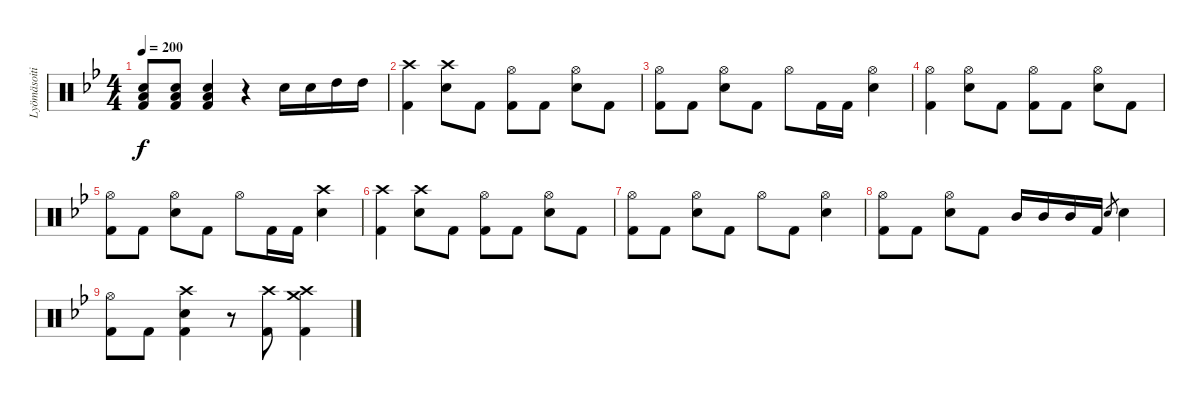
\track ("Lyömäsoitin" "Lyömäsoiti") {instrument percussion}
\staff {score}
\articulation defaults
\ts (4 4)
\tempo 200
\clef neutral
\ks bb
("Snare (hit) 2" "Low Tom (hit)" "Kick (hit) 2").8{dy f} ("Snare (hit) 2" "Low Tom (hit)" "Kick (hit) 2").8 ("Snare (hit) 2" "Low Tom (hit)" "Kick (hit) 2").4 r.4 "Snare (hit) 2".16 "Snare (hit) 2".16 "High Tom (hit)".16 "High Tom (hit)".16 |
("Crash high (hit)" "Kick (hit) 2").4 ("Crash high (hit)" "Snare (hit) 2").8 "Kick (hit) 2".8 ("Hi-Hat (open)" "Kick (hit) 2").8 "Kick (hit) 2".8 ("Hi-Hat (open)" "Snare (hit) 2").8 "Kick (hit) 2".8 |
("Hi-Hat (open)" "Kick (hit) 2").8 "Kick (hit) 2".8 ("Hi-Hat (open)" "Snare (hit) 2").8 "Kick (hit) 2".8 "Hi-Hat (open)".8 "Kick (hit) 2".16 "Kick (hit) 2".16 ("Hi-Hat (open)" "Snare (hit) 2").4 |
("Hi-Hat (open)" "Kick (hit) 2").4 ("Hi-Hat (open)" "Snare (hit) 2").8 "Kick (hit) 2".8 ("Hi-Hat (open)" "Kick (hit) 2").8 "Kick (hit) 2".8 ("Hi-Hat (open)" "Snare (hit) 2").8 "Kick (hit) 2".8 |
("Hi-Hat (open)" "Kick (hit) 2").8 "Kick (hit) 2".8 ("Hi-Hat (open)" "Snare (hit) 2").8 "Kick (hit) 2".8 "Hi-Hat (open)".8 "Kick (hit) 2".16 "Kick (hit) 2".16 ("Crash high (hit)" "Snare (hit) 2").4 |
("Crash high (hit)" "Kick (hit) 2").4 ("Crash high (hit)" "Snare (hit) 2").8 "Kick (hit) 2".8 ("Hi-Hat (open)" "Kick (hit) 2").8 "Kick (hit) 2".8 ("Hi-Hat (open)" "Snare (hit) 2").8 "Kick (hit) 2".8 |
("Hi-Hat (open)" "Kick (hit) 2").8 "Kick (hit) 2".8 ("Hi-Hat (open)" "Snare (hit) 2").8 "Kick (hit) 2".8 "Hi-Hat (open)".8 "Kick (hit) 2".8 ("Hi-Hat (open)" "Snare (hit) 2").4 |
("Hi-Hat (open)" "Kick (hit) 2").8 "Kick (hit) 2".8 ("Hi-Hat (open)" "Snare (hit) 2").8 "Kick (hit) 2".8 "Mid Tom (hit)".16 "Mid Tom (hit)".16 "Mid Tom (hit)".16 "Kick (hit) 2".16 "Snare (hit) 2".8{gr} "Snare (hit) 2".4 |
("Hi-Hat (open)" "Kick (hit) 2").8 "Kick (hit) 2".8 ("Crash high (hit)" "Snare (hit) 2" "Kick (hit) 2").4 r.8 ("Crash high (hit)" "Kick (hit) 2").8 ("Crash high (hit)" "Kick (hit) 2" "Crash medium (hit)").4
